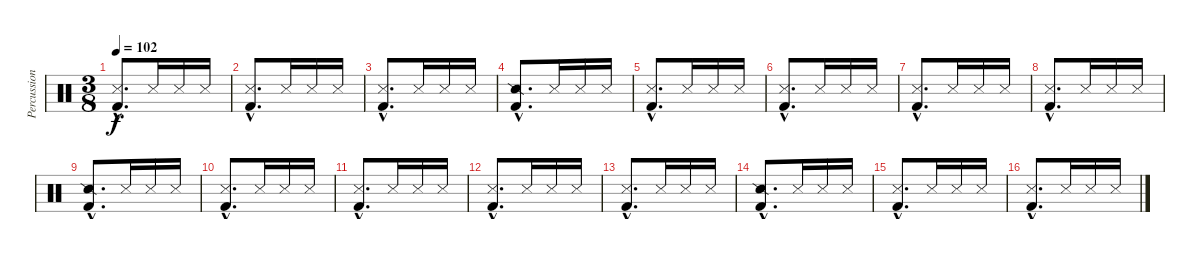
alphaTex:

\track ("Percussions" "Percussion") {instrument percussion}
\staff {score}
\articulation defaults
\ts (3 8)
\tempo 102
\clef neutral
\ks c
("Snare (side stick) 3"{hac} "Kick (hit) 2"{hac}).8{d dy f} "Snare (side stick) 3".16 "Snare (side stick) 3".16 "Snare (side stick) 3".16 |
("Snare (side stick) 3"{hac} "Kick (hit) 2"{hac}).8{d} "Snare (side stick) 3".16 "Snare (side stick) 3".16 "Snare (side stick) 3".16 |
("Snare (side stick) 3"{hac} "Kick (hit) 2"{hac}).8{d} "Snare (side stick) 3".16 "Snare (side stick) 3".16 "Snare (side stick) 3".16 |
("Snare (side stick) 2"{hac} "Kick (hit) 2"{hac}).8{d} "Snare (side stick) 3".16 "Snare (side stick) 3".16 "Snare (side stick) 3".16 |
("Snare (side stick) 3"{hac} "Kick (hit) 2"{hac}).8{d} "Snare (side stick) 3".16 "Snare (side stick) 3".16 "Snare (side stick) 3".16 |
("Snare (side stick) 3"{hac} "Kick (hit) 2"{hac}).8{d} "Snare (side stick) 3".16 "Snare (side stick) 3".16 "Snare (side stick) 3".16 |
("Snare (side stick) 3"{hac} "Kick (hit) 2"{hac}).8{d} "Snare (side stick) 3".16 "Snare (side stick) 3".16 "Snare (side stick) 3".16 |
("Snare (side stick) 3"{hac} "Kick (hit) 2"{hac}).8{d} "Snare (side stick) 3".16 "Snare (side stick) 3".16 "Snare (side stick) 3".16 |
("Snare (side stick) 2"{hac} "Kick (hit) 2"{hac}).8{d} "Snare (side stick) 3".16 "Snare (side stick) 3".16 "Snare (side stick) 3".16 |
("Snare (side stick) 3"{hac} "Kick (hit) 2"{hac}).8{d} "Snare (side stick) 3".16 "Snare (side stick) 3".16 "Snare (side stick) 3".16 |
("Snare (side stick) 3"{hac} "Kick (hit) 2"{hac}).8{d} "Snare (side stick) 3".16 "Snare (side stick) 3".16 "Snare (side stick) 3".16 |
("Snare (side stick) 3"{hac} "Kick (hit) 2"{hac}).8{d} "Snare (side stick) 3".16 "Snare (side stick) 3".16 "Snare (side stick) 3".16 |
("Snare (side stick) 3"{hac} "Kick (hit) 2"{hac}).8{d} "Snare (side stick) 3".16 "Snare (side stick) 3".16 "Snare (side stick) 3".16 |
("Snare (side stick) 2"{hac} "Kick (hit) 2"{hac}).8{d} "Snare (side stick) 3".16 "Snare (side stick) 3".16 "Snare (side stick) 3".16 |
("Snare (side stick) 3"{hac} "Kick (hit) 2"{hac}).8{d} "Snare (side stick) 3".16 "Snare (side stick) 3".16 "Snare (side stick) 3".16 |
("Snare (side stick) 3"{hac} "Kick (hit) 2"{hac}).8{d} "Snare (side stick) 3".16 "Snare (side stick) 3".16 "Snare (side stick) 3".16
